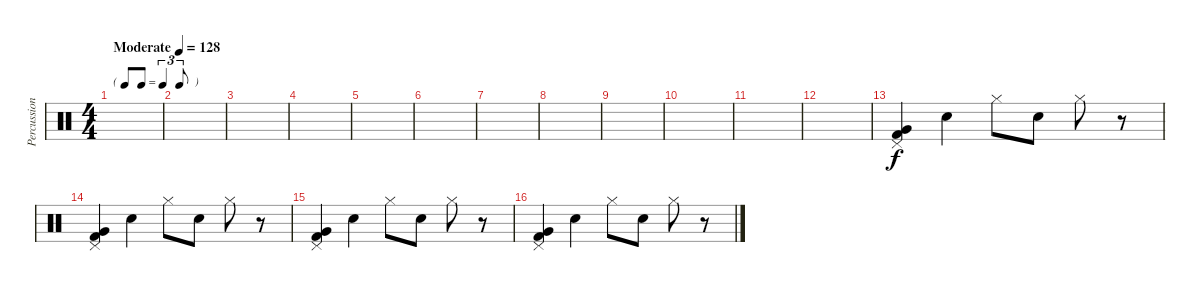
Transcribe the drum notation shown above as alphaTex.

\track ("Percussions" "Percussion") {instrument percussion}
\staff {score}
\articulation defaults
\ts (4 4)
\tf triplet8th
\tempo (128 "Moderate")
\clef neutral
\ks c
|
|
|
|
|
|
|
|
|
|
|
|
("Kick (hit) 2" "Pedal Hi-Hat (hit)" "Very Low Tom (hit)").4 "Electric Snare (hit)".4 "Hi-Hat (closed)".8 "Snare (hit) 2".8 "Hi-Hat (closed)".8 r.8 |
("Kick (hit) 2" "Pedal Hi-Hat (hit)" "Very Low Tom (hit)").4 "Electric Snare (hit)".4 "Hi-Hat (closed)".8 "Snare (hit) 2".8 "Hi-Hat (closed)".8 r.8 |
("Kick (hit) 2" "Pedal Hi-Hat (hit)" "Very Low Tom (hit)").4 "Electric Snare (hit)".4 "Hi-Hat (closed)".8 "Snare (hit) 2".8 "Hi-Hat (closed)".8 r.8 |
("Kick (hit) 2" "Pedal Hi-Hat (hit)" "Very Low Tom (hit)").4 "Electric Snare (hit)".4 "Hi-Hat (closed)".8 "Snare (hit) 2".8 "Hi-Hat (closed)".8 r.8
